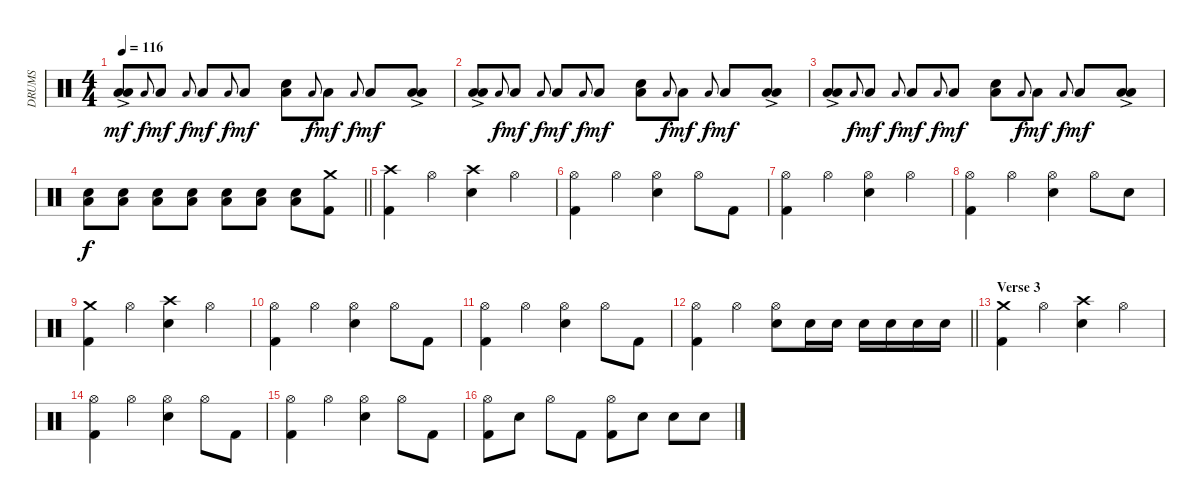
\track ("DRUMS" "DRUMS") {instrument percussion}
\staff {score}
\articulation defaults
\ts (4 4)
\tempo 116
\clef neutral
\ks c
("Low Floor Tom (hit)"{ac} "Low Tom (hit)").8{dy mf} "Low Tom (hit)".8{gr onbeat dy f} "Low Tom (hit)".8{dy mf} "Low Tom (hit)".8{gr onbeat dy f} "Low Tom (hit)".8{dy mf} "Low Tom (hit)".8{gr onbeat dy f} "Low Tom (hit)".8{dy mf} ("Low Tom (hit)" "Snare (hit) 2").8 "Low Tom (hit)".8{gr onbeat dy f} "Low Tom (hit)".8{dy mf} "Low Tom (hit)".8{gr onbeat dy f} "Low Tom (hit)".8{dy mf} ("Low Floor Tom (hit)"{ac} "Low Tom (hit)").8 |
("Low Floor Tom (hit)"{ac} "Low Tom (hit)").8 "Low Tom (hit)".8{gr onbeat dy f} "Low Tom (hit)".8{dy mf} "Low Tom (hit)".8{gr onbeat dy f} "Low Tom (hit)".8{dy mf} "Low Tom (hit)".8{gr onbeat dy f} "Low Tom (hit)".8{dy mf} ("Low Tom (hit)" "Snare (hit) 2").8 "Low Tom (hit)".8{gr onbeat dy f} "Low Tom (hit)".8{dy mf} "Low Tom (hit)".8{gr onbeat dy f} "Low Tom (hit)".8{dy mf} ("Low Floor Tom (hit)"{ac} "Low Tom (hit)").8 |
("Low Floor Tom (hit)"{ac} "Low Tom (hit)").8 "Low Tom (hit)".8{gr onbeat dy f} "Low Tom (hit)".8{dy mf} "Low Tom (hit)".8{gr onbeat dy f} "Low Tom (hit)".8{dy mf} "Low Tom (hit)".8{gr onbeat dy f} "Low Tom (hit)".8{dy mf} ("Low Tom (hit)" "Snare (hit) 2").8 "Low Tom (hit)".8{gr onbeat dy f} "Low Tom (hit)".8{dy mf} "Low Tom (hit)".8{gr onbeat dy f} "Low Tom (hit)".8{dy mf} ("Low Floor Tom (hit)"{ac} "Low Tom (hit)").8 |
\barLineRight lightlight
("Low Floor Tom (hit)" "Snare (hit) 2").8{dy f} ("Low Floor Tom (hit)" "Snare (hit) 2").8 ("Low Floor Tom (hit)" "Snare (hit) 2").8 ("Low Floor Tom (hit)" "Snare (hit) 2").8 ("Low Floor Tom (hit)" "Snare (hit) 2").8 ("Low Floor Tom (hit)" "Snare (hit) 2").8 ("Low Floor Tom (hit)" "Snare (hit) 2").8 ("Crash medium (hit)" "Kick (hit) 2").8 |
("Crash high (hit)" "Kick (hit) 2").4 "Hi-Hat (open)".4 ("Crash high (hit)" "Snare (hit) 2").4 "Hi-Hat (open)".4 |
("Hi-Hat (open)" "Kick (hit) 2").4 "Hi-Hat (open)".4 ("Hi-Hat (open)" "Snare (hit) 2").4 "Hi-Hat (open)".8 "Kick (hit) 2".8 |
("Hi-Hat (open)" "Kick (hit) 2").4 "Hi-Hat (open)".4 ("Hi-Hat (open)" "Snare (hit) 2").4 "Hi-Hat (open)".4 |
("Hi-Hat (open)" "Kick (hit) 2").4 "Hi-Hat (open)".4 ("Hi-Hat (open)" "Snare (hit) 2").4 "Hi-Hat (open)".8 "Snare (hit) 2".8 |
("Crash medium (hit)" "Kick (hit) 2").4 "Hi-Hat (open)".4 ("Crash high (hit)" "Snare (hit) 2").4 "Hi-Hat (open)".4 |
("Hi-Hat (open)" "Kick (hit) 2").4 "Hi-Hat (open)".4 ("Hi-Hat (open)" "Snare (hit) 2").4 "Hi-Hat (open)".8 "Kick (hit) 2".8 |
("Hi-Hat (open)" "Kick (hit) 2").4 "Hi-Hat (open)".4 ("Hi-Hat (open)" "Snare (hit) 2").4 "Hi-Hat (open)".8 "Kick (hit) 2".8 |
\barLineRight lightlight
("Hi-Hat (open)" "Kick (hit) 2").4 "Hi-Hat (open)".4 ("Hi-Hat (open)" "Snare (hit) 2").8 "Snare (hit) 2".16 "Snare (hit) 2".16 "Snare (hit) 2".16 "Snare (hit) 2".16 "Snare (hit) 2".16 "Snare (hit) 2".16 |
\section ("" "Verse 3")
("Crash medium (hit)" "Kick (hit) 2").4 "Hi-Hat (open)".4 ("Crash high (hit)" "Snare (hit) 2").4 "Hi-Hat (open)".4 |
("Hi-Hat (open)" "Kick (hit) 2").4 "Hi-Hat (open)".4 ("Hi-Hat (open)" "Snare (hit) 2").4 "Hi-Hat (open)".8 "Kick (hit) 2".8 |
("Hi-Hat (open)" "Kick (hit) 2").4 "Hi-Hat (open)".4 ("Hi-Hat (open)" "Snare (hit) 2").4 "Hi-Hat (open)".8 "Kick (hit) 2".8 |
("Hi-Hat (open)" "Kick (hit) 2").8 "Snare (hit) 2".8 "Hi-Hat (open)".8 "Kick (hit) 2".8 ("Hi-Hat (open)" "Kick (hit) 2").8 "Snare (hit) 2".8 "Snare (hit) 2".8 "Snare (hit) 2".8
